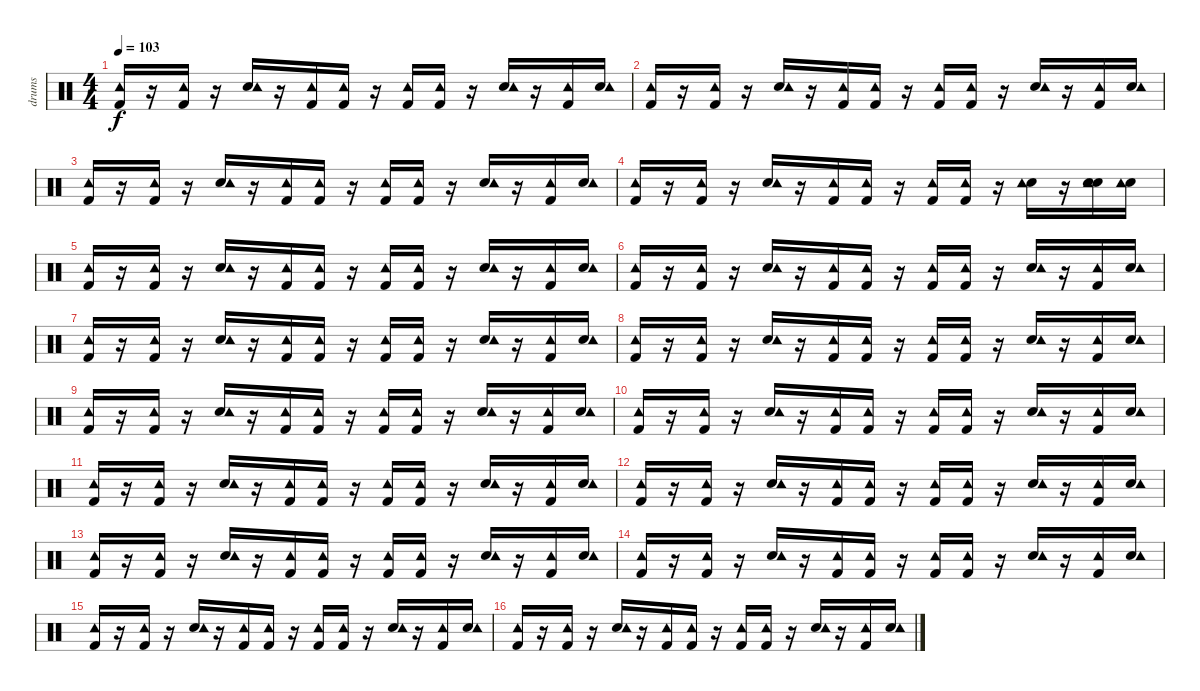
\track ("drums" "drums") {instrument percussion}
\staff {score}
\articulation defaults
\ts (4 4)
\tempo 103
\clef neutral
\ks c
("Kick (hit) 2" "Tambourine (hit)").16{dy f} r.16 ("Kick (hit) 2" "Tambourine (hit)").16 r.16 ("Electric Snare (hit)" "Tambourine (hit)").16 r.16 ("Kick (hit) 2" "Tambourine (hit)").16 ("Kick (hit) 2" "Tambourine (hit)").16 r.16 ("Kick (hit) 2" "Tambourine (hit)").16 ("Kick (hit) 2" "Tambourine (hit)").16 r.16 ("Electric Snare (hit)" "Tambourine (hit)").16 r.16 ("Kick (hit) 2" "Tambourine (hit)").16 ("Electric Snare (hit)" "Tambourine (hit)").16 |
("Kick (hit) 2" "Tambourine (hit)").16 r.16 ("Kick (hit) 2" "Tambourine (hit)").16 r.16 ("Electric Snare (hit)" "Tambourine (hit)").16 r.16 ("Kick (hit) 2" "Tambourine (hit)").16 ("Kick (hit) 2" "Tambourine (hit)").16 r.16 ("Kick (hit) 2" "Tambourine (hit)").16 ("Kick (hit) 2" "Tambourine (hit)").16 r.16 ("Electric Snare (hit)" "Tambourine (hit)").16 r.16 ("Kick (hit) 2" "Tambourine (hit)").16 ("Electric Snare (hit)" "Tambourine (hit)").16 |
("Kick (hit) 2" "Tambourine (hit)").16 r.16 ("Kick (hit) 2" "Tambourine (hit)").16 r.16 ("Electric Snare (hit)" "Tambourine (hit)").16 r.16 ("Kick (hit) 2" "Tambourine (hit)").16 ("Kick (hit) 2" "Tambourine (hit)").16 r.16 ("Kick (hit) 2" "Tambourine (hit)").16 ("Kick (hit) 2" "Tambourine (hit)").16 r.16 ("Electric Snare (hit)" "Tambourine (hit)").16 r.16 ("Kick (hit) 2" "Tambourine (hit)").16 ("Electric Snare (hit)" "Tambourine (hit)").16 |
("Kick (hit) 2" "Tambourine (hit)").16 r.16 ("Kick (hit) 2" "Tambourine (hit)").16 r.16 ("Electric Snare (hit)" "Tambourine (hit)").16 r.16 ("Kick (hit) 2" "Tambourine (hit)").16 ("Kick (hit) 2" "Tambourine (hit)").16 r.16 ("Kick (hit) 2" "Tambourine (hit)").16 ("Kick (hit) 2" "Tambourine (hit)").16 r.16 ("Electric Snare (hit)" "Tambourine (hit)").16 r.16 ("Electric Snare (hit)" "Snare (hit) 2" "Tambourine (hit)").16 ("Electric Snare (hit)" "Tambourine (hit)").16 |
("Kick (hit) 2" "Tambourine (hit)").16 r.16 ("Kick (hit) 2" "Tambourine (hit)").16 r.16 ("Electric Snare (hit)" "Tambourine (hit)").16 r.16 ("Kick (hit) 2" "Tambourine (hit)").16 ("Kick (hit) 2" "Tambourine (hit)").16 r.16 ("Kick (hit) 2" "Tambourine (hit)").16 ("Kick (hit) 2" "Tambourine (hit)").16 r.16 ("Electric Snare (hit)" "Tambourine (hit)").16 r.16 ("Kick (hit) 2" "Tambourine (hit)").16 ("Electric Snare (hit)" "Tambourine (hit)").16 |
("Kick (hit) 2" "Tambourine (hit)").16 r.16 ("Kick (hit) 2" "Tambourine (hit)").16 r.16 ("Electric Snare (hit)" "Tambourine (hit)").16 r.16 ("Kick (hit) 2" "Tambourine (hit)").16 ("Kick (hit) 2" "Tambourine (hit)").16 r.16 ("Kick (hit) 2" "Tambourine (hit)").16 ("Kick (hit) 2" "Tambourine (hit)").16 r.16 ("Electric Snare (hit)" "Tambourine (hit)").16 r.16 ("Kick (hit) 2" "Tambourine (hit)").16 ("Electric Snare (hit)" "Tambourine (hit)").16 |
("Kick (hit) 2" "Tambourine (hit)").16 r.16 ("Kick (hit) 2" "Tambourine (hit)").16 r.16 ("Electric Snare (hit)" "Tambourine (hit)").16 r.16 ("Kick (hit) 2" "Tambourine (hit)").16 ("Kick (hit) 2" "Tambourine (hit)").16 r.16 ("Kick (hit) 2" "Tambourine (hit)").16 ("Kick (hit) 2" "Tambourine (hit)").16 r.16 ("Electric Snare (hit)" "Tambourine (hit)").16 r.16 ("Kick (hit) 2" "Tambourine (hit)").16 ("Electric Snare (hit)" "Tambourine (hit)").16 |
("Kick (hit) 2" "Tambourine (hit)").16 r.16 ("Kick (hit) 2" "Tambourine (hit)").16 r.16 ("Electric Snare (hit)" "Tambourine (hit)").16 r.16 ("Kick (hit) 2" "Tambourine (hit)").16 ("Kick (hit) 2" "Tambourine (hit)").16 r.16 ("Kick (hit) 2" "Tambourine (hit)").16 ("Kick (hit) 2" "Tambourine (hit)").16 r.16 ("Electric Snare (hit)" "Tambourine (hit)").16 r.16 ("Kick (hit) 2" "Tambourine (hit)").16 ("Electric Snare (hit)" "Tambourine (hit)").16 |
("Kick (hit) 2" "Tambourine (hit)").16 r.16 ("Kick (hit) 2" "Tambourine (hit)").16 r.16 ("Electric Snare (hit)" "Tambourine (hit)").16 r.16 ("Kick (hit) 2" "Tambourine (hit)").16 ("Kick (hit) 2" "Tambourine (hit)").16 r.16 ("Kick (hit) 2" "Tambourine (hit)").16 ("Kick (hit) 2" "Tambourine (hit)").16 r.16 ("Electric Snare (hit)" "Tambourine (hit)").16 r.16 ("Kick (hit) 2" "Tambourine (hit)").16 ("Electric Snare (hit)" "Tambourine (hit)").16 |
("Kick (hit) 2" "Tambourine (hit)").16 r.16 ("Kick (hit) 2" "Tambourine (hit)").16 r.16 ("Electric Snare (hit)" "Tambourine (hit)").16 r.16 ("Kick (hit) 2" "Tambourine (hit)").16 ("Kick (hit) 2" "Tambourine (hit)").16 r.16 ("Kick (hit) 2" "Tambourine (hit)").16 ("Kick (hit) 2" "Tambourine (hit)").16 r.16 ("Electric Snare (hit)" "Tambourine (hit)").16 r.16 ("Kick (hit) 2" "Tambourine (hit)").16 ("Electric Snare (hit)" "Tambourine (hit)").16 |
("Kick (hit) 2" "Tambourine (hit)").16 r.16 ("Kick (hit) 2" "Tambourine (hit)").16 r.16 ("Electric Snare (hit)" "Tambourine (hit)").16 r.16 ("Kick (hit) 2" "Tambourine (hit)").16 ("Kick (hit) 2" "Tambourine (hit)").16 r.16 ("Kick (hit) 2" "Tambourine (hit)").16 ("Kick (hit) 2" "Tambourine (hit)").16 r.16 ("Electric Snare (hit)" "Tambourine (hit)").16 r.16 ("Kick (hit) 2" "Tambourine (hit)").16 ("Electric Snare (hit)" "Tambourine (hit)").16 |
("Kick (hit) 2" "Tambourine (hit)").16 r.16 ("Kick (hit) 2" "Tambourine (hit)").16 r.16 ("Electric Snare (hit)" "Tambourine (hit)").16 r.16 ("Kick (hit) 2" "Tambourine (hit)").16 ("Kick (hit) 2" "Tambourine (hit)").16 r.16 ("Kick (hit) 2" "Tambourine (hit)").16 ("Kick (hit) 2" "Tambourine (hit)").16 r.16 ("Electric Snare (hit)" "Tambourine (hit)").16 r.16 ("Kick (hit) 2" "Tambourine (hit)").16 ("Electric Snare (hit)" "Tambourine (hit)").16 |
("Kick (hit) 2" "Tambourine (hit)").16 r.16 ("Kick (hit) 2" "Tambourine (hit)").16 r.16 ("Electric Snare (hit)" "Tambourine (hit)").16 r.16 ("Kick (hit) 2" "Tambourine (hit)").16 ("Kick (hit) 2" "Tambourine (hit)").16 r.16 ("Kick (hit) 2" "Tambourine (hit)").16 ("Kick (hit) 2" "Tambourine (hit)").16 r.16 ("Electric Snare (hit)" "Tambourine (hit)").16 r.16 ("Kick (hit) 2" "Tambourine (hit)").16 ("Electric Snare (hit)" "Tambourine (hit)").16 |
("Kick (hit) 2" "Tambourine (hit)").16 r.16 ("Kick (hit) 2" "Tambourine (hit)").16 r.16 ("Electric Snare (hit)" "Tambourine (hit)").16 r.16 ("Kick (hit) 2" "Tambourine (hit)").16 ("Kick (hit) 2" "Tambourine (hit)").16 r.16 ("Kick (hit) 2" "Tambourine (hit)").16 ("Kick (hit) 2" "Tambourine (hit)").16 r.16 ("Electric Snare (hit)" "Tambourine (hit)").16 r.16 ("Kick (hit) 2" "Tambourine (hit)").16 ("Electric Snare (hit)" "Tambourine (hit)").16 |
("Kick (hit) 2" "Tambourine (hit)").16 r.16 ("Kick (hit) 2" "Tambourine (hit)").16 r.16 ("Electric Snare (hit)" "Tambourine (hit)").16 r.16 ("Kick (hit) 2" "Tambourine (hit)").16 ("Kick (hit) 2" "Tambourine (hit)").16 r.16 ("Kick (hit) 2" "Tambourine (hit)").16 ("Kick (hit) 2" "Tambourine (hit)").16 r.16 ("Electric Snare (hit)" "Tambourine (hit)").16 r.16 ("Kick (hit) 2" "Tambourine (hit)").16 ("Electric Snare (hit)" "Tambourine (hit)").16 |
("Kick (hit) 2" "Tambourine (hit)").16 r.16 ("Kick (hit) 2" "Tambourine (hit)").16 r.16 ("Electric Snare (hit)" "Tambourine (hit)").16 r.16 ("Kick (hit) 2" "Tambourine (hit)").16 ("Kick (hit) 2" "Tambourine (hit)").16 r.16 ("Kick (hit) 2" "Tambourine (hit)").16 ("Kick (hit) 2" "Tambourine (hit)").16 r.16 ("Electric Snare (hit)" "Tambourine (hit)").16 r.16 ("Kick (hit) 2" "Tambourine (hit)").16 ("Electric Snare (hit)" "Tambourine (hit)").16
